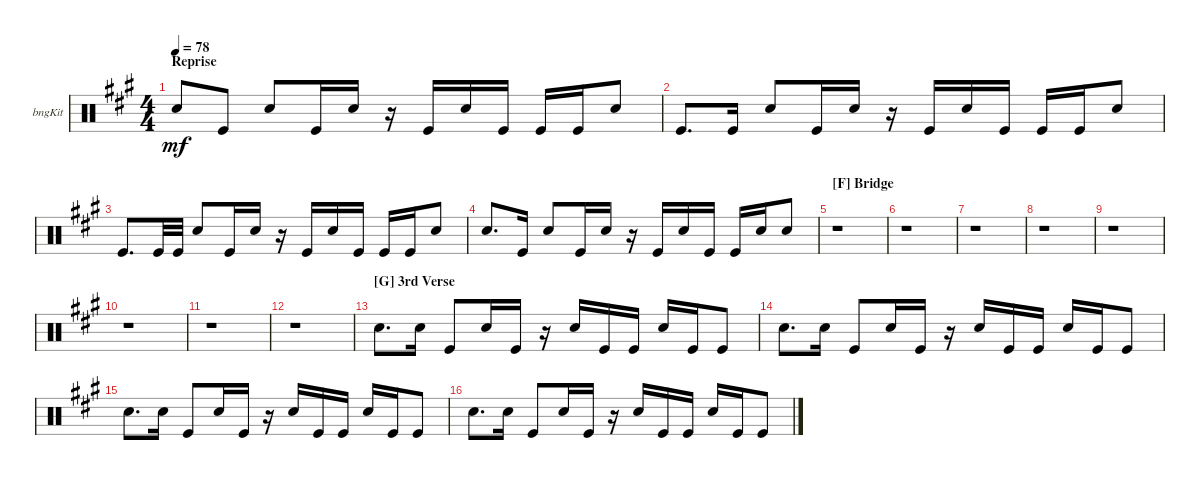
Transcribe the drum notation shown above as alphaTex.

\defaultSystemsLayout 4
\bracketExtendMode groupsimilarinstruments
\firstSystemTrackNameOrientation horizontal
\otherSystemsTrackNameOrientation horizontal
\track ("Bongos" "bngKit") {instrument percussion}
\staff {score}
\articulation defaults
\ts (4 4)
\section ("" "Reprise")
\tempo 78
\clef neutral
\ks a "Snare (hit) 2".8{dy mf} "Kick (hit)".8 "Snare (hit) 2".8 "Kick (hit)".16 "Snare (hit) 2".16
r.16 "Kick (hit)".16 "Snare (hit) 2".16 "Kick (hit)".16 "Kick (hit)".16 "Kick (hit)".16 "Snare (hit) 2".8 |
"Kick (hit)".8{d} "Kick (hit)".16 "Snare (hit) 2".8 "Kick (hit)".16 "Snare (hit) 2".16 r.16 "Kick (hit)".16 "Snare (hit) 2".16 "Kick (hit)".16 "Kick (hit)".16 "Kick (hit)".16 "Snare (hit) 2".8 |
"Kick (hit)".8{d} "Kick (hit)".32 "Kick (hit)".32 "Snare (hit) 2".8 "Kick (hit)".16 "Snare (hit) 2".16 r.16 "Kick (hit)".16 "Snare (hit) 2".16 "Kick (hit)".16 "Kick (hit)".16 "Kick (hit)".16 "Snare (hit) 2".8 |
"Snare (hit) 2".8{d} "Kick (hit)".16 "Snare (hit) 2".8 "Kick (hit)".16 "Snare (hit) 2".16 r.16 "Kick (hit)".16 "Snare (hit) 2".16 "Kick (hit)".16 "Kick (hit)".16 "Snare (hit) 2".16 "Snare (hit) 2".8 |
\section ("F" "Bridge")
r.1 |
r.1 |
r.1 |
r.1 |
r.1 |
r.1 |
r.1 |
r.1 |
\section ("G" "3rd Verse")
"Snare (hit) 2".8{d} "Snare (hit) 2".16 "Kick (hit)".8 "Snare (hit) 2".16 "Kick (hit)".16 r.16 "Snare (hit) 2".16 "Kick (hit)".16 "Kick (hit)".16 "Snare (hit) 2".16 "Kick (hit)".16 "Kick (hit)".8 |
"Snare (hit) 2".8{d} "Snare (hit) 2".16 "Kick (hit)".8 "Snare (hit) 2".16 "Kick (hit)".16 r.16 "Snare (hit) 2".16 "Kick (hit)".16 "Kick (hit)".16 "Snare (hit) 2".16 "Kick (hit)".16 "Kick (hit)".8 |
"Snare (hit) 2".8{d} "Snare (hit) 2".16 "Kick (hit)".8 "Snare (hit) 2".16 "Kick (hit)".16 r.16 "Snare (hit) 2".16 "Kick (hit)".16 "Kick (hit)".16 "Snare (hit) 2".16 "Kick (hit)".16 "Kick (hit)".8 |
"Snare (hit) 2".8{d} "Snare (hit) 2".16 "Kick (hit)".8 "Snare (hit) 2".16 "Kick (hit)".16 r.16 "Snare (hit) 2".16 "Kick (hit)".16 "Kick (hit)".16 "Snare (hit) 2".16 "Kick (hit)".16 "Kick (hit)".8
